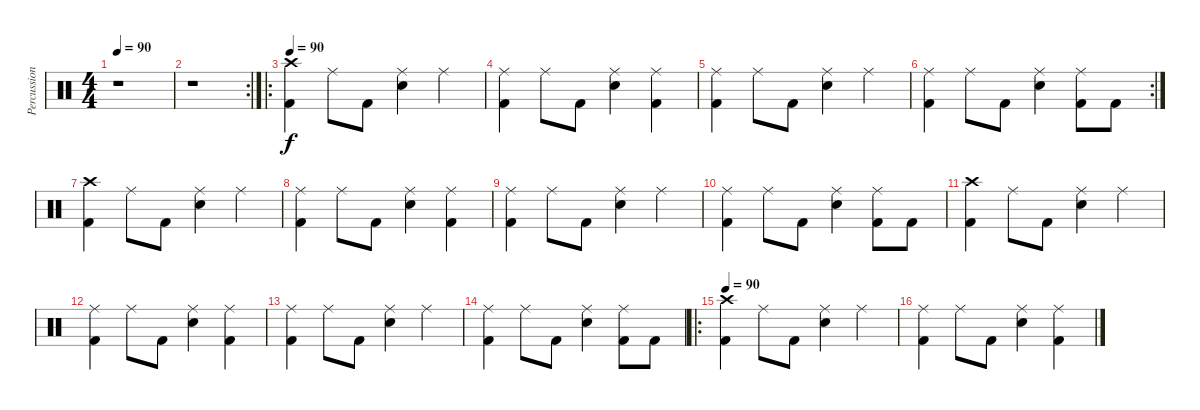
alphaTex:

\track ("Percussions" "Percussion") {instrument percussion}
\staff {score}
\articulation defaults
\ts (4 4)
\tempo 90
\clef neutral
\ks c
r.1{dy f} |
\rc 2
r.1 |
\ro
\tempo 90
("Crash high (hit)" "Kick (hit) 2").4 "Ride (middle)".8 "Kick (hit) 2".8 ("Ride (middle)" "Electric Snare (hit)").4 "Ride (middle)".4 |
("Ride (middle)" "Kick (hit) 2").4 "Ride (middle)".8 "Kick (hit) 2".8 ("Ride (middle)" "Electric Snare (hit)").4 ("Ride (middle)" "Kick (hit) 2").4 |
("Ride (middle)" "Kick (hit) 2").4 "Ride (middle)".8 "Kick (hit) 2".8 ("Ride (middle)" "Electric Snare (hit)").4 "Ride (middle)".4 |
\rc 2
("Ride (middle)" "Kick (hit) 2").4 "Ride (middle)".8 "Kick (hit) 2".8 ("Ride (middle)" "Electric Snare (hit)").4 ("Ride (middle)" "Kick (hit) 2").8 "Kick (hit) 2".8 |
("Crash high (hit)" "Kick (hit) 2").4 "Ride (middle)".8 "Kick (hit) 2".8 ("Ride (middle)" "Electric Snare (hit)").4 "Ride (middle)".4 |
("Ride (middle)" "Kick (hit) 2").4 "Ride (middle)".8 "Kick (hit) 2".8 ("Ride (middle)" "Electric Snare (hit)").4 ("Ride (middle)" "Kick (hit) 2").4 |
("Ride (middle)" "Kick (hit) 2").4 "Ride (middle)".8 "Kick (hit) 2".8 ("Ride (middle)" "Electric Snare (hit)").4 "Ride (middle)".4 |
("Ride (middle)" "Kick (hit) 2").4 "Ride (middle)".8 "Kick (hit) 2".8 ("Ride (middle)" "Electric Snare (hit)").4 ("Ride (middle)" "Kick (hit) 2").8 "Kick (hit) 2".8 |
("Crash high (hit)" "Kick (hit) 2").4 "Ride (middle)".8 "Kick (hit) 2".8 ("Ride (middle)" "Electric Snare (hit)").4 "Ride (middle)".4 |
("Ride (middle)" "Kick (hit) 2").4 "Ride (middle)".8 "Kick (hit) 2".8 ("Ride (middle)" "Electric Snare (hit)").4 ("Ride (middle)" "Kick (hit) 2").4 |
("Ride (middle)" "Kick (hit) 2").4 "Ride (middle)".8 "Kick (hit) 2".8 ("Ride (middle)" "Electric Snare (hit)").4 "Ride (middle)".4 |
("Ride (middle)" "Kick (hit) 2").4 "Ride (middle)".8 "Kick (hit) 2".8 ("Ride (middle)" "Electric Snare (hit)").4 ("Ride (middle)" "Kick (hit) 2").8 "Kick (hit) 2".8 |
\ro
\tempo 90
("Crash high (hit)" "Kick (hit) 2").4 "Ride (middle)".8 "Kick (hit) 2".8 ("Ride (middle)" "Electric Snare (hit)").4 "Ride (middle)".4 |
("Ride (middle)" "Kick (hit) 2").4 "Ride (middle)".8 "Kick (hit) 2".8 ("Ride (middle)" "Electric Snare (hit)").4 ("Ride (middle)" "Kick (hit) 2").4
